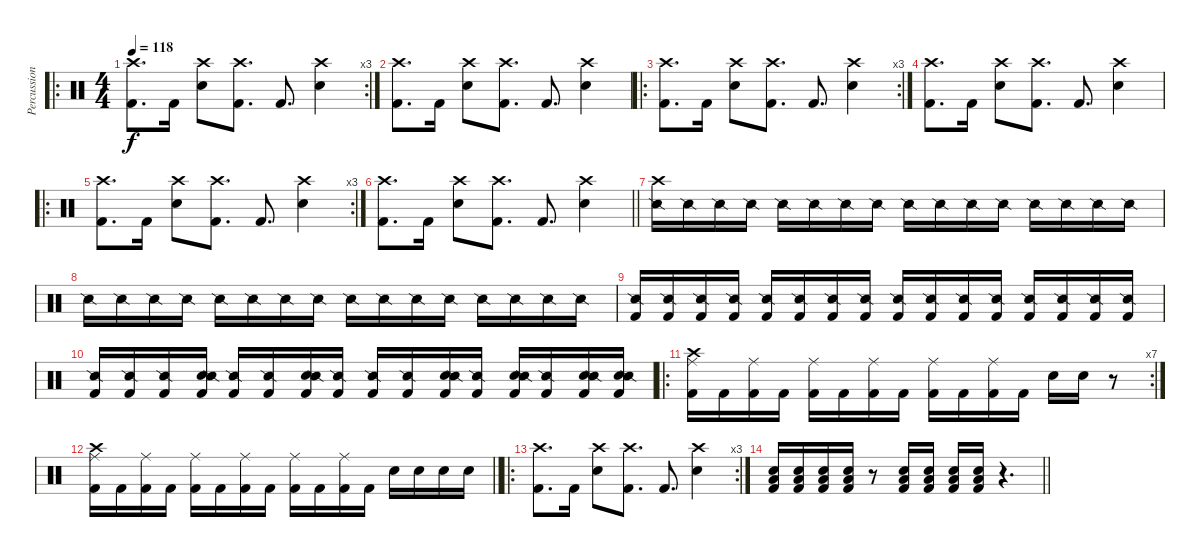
\track ("Percussion" "Percussion") {instrument percussion}
\staff {score}
\articulation defaults
\ro
\rc 3
\ts (4 4)
\tempo 118
\clef neutral
\ks c
("Crash high (hit)" "Kick (hit) 2").8{d dy f} "Kick (hit) 2".16 ("Crash high (hit)" "Snare (hit) 2").8 ("Crash high (hit)" "Kick (hit) 2").8{d} "Kick (hit) 2".8{d} ("Crash high (hit)" "Snare (hit) 2").4 |
("Crash high (hit)" "Kick (hit) 2").8{d} "Kick (hit) 2".16 ("Crash high (hit)" "Snare (hit) 2").8 ("Crash high (hit)" "Kick (hit) 2").8{d} "Kick (hit) 2".8{d} ("Crash high (hit)" "Snare (hit) 2").4 |
\ro
\rc 3
("Crash high (hit)" "Kick (hit) 2").8{d} "Kick (hit) 2".16 ("Crash high (hit)" "Snare (hit) 2").8 ("Crash high (hit)" "Kick (hit) 2").8{d} "Kick (hit) 2".8{d} ("Crash high (hit)" "Snare (hit) 2").4 |
("Crash high (hit)" "Kick (hit) 2").8{d} "Kick (hit) 2".16 ("Crash high (hit)" "Snare (hit) 2").8 ("Crash high (hit)" "Kick (hit) 2").8{d} "Kick (hit) 2".8{d} ("Crash high (hit)" "Snare (hit) 2").4 |
\ro
\rc 3
("Crash high (hit)" "Kick (hit) 2").8{d} "Kick (hit) 2".16 ("Crash high (hit)" "Snare (hit) 2").8 ("Crash high (hit)" "Kick (hit) 2").8{d} "Kick (hit) 2".8{d} ("Crash high (hit)" "Snare (hit) 2").4 |
\barLineRight lightlight
("Crash high (hit)" "Kick (hit) 2").8{d} "Kick (hit) 2".16 ("Crash high (hit)" "Snare (hit) 2").8 ("Crash high (hit)" "Kick (hit) 2").8{d} "Kick (hit) 2".8{d} ("Crash high (hit)" "Snare (hit) 2").4 |
("Crash high (hit)" "Snare (side stick) 2").16 "Snare (side stick) 2".16 "Snare (side stick) 2".16 "Snare (side stick) 2".16 "Snare (side stick) 2".16 "Snare (side stick) 2".16 "Snare (side stick) 2".16 "Snare (side stick) 2".16 "Snare (side stick) 2".16 "Snare (side stick) 2".16 "Snare (side stick) 2".16 "Snare (side stick) 2".16 "Snare (side stick) 2".16 "Snare (side stick) 2".16 "Snare (side stick) 2".16 "Snare (side stick) 2".16 |
"Snare (side stick) 2".16 "Snare (side stick) 2".16 "Snare (side stick) 2".16 "Snare (side stick) 2".16 "Snare (side stick) 2".16 "Snare (side stick) 2".16 "Snare (side stick) 2".16 "Snare (side stick) 2".16 "Snare (side stick) 2".16 "Snare (side stick) 2".16 "Snare (side stick) 2".16 "Snare (side stick) 2".16 "Snare (side stick) 2".16 "Snare (side stick) 2".16 "Snare (side stick) 2".16 "Snare (side stick) 2".16 |
("Kick (hit) 2" "Snare (side stick) 2").16 ("Kick (hit) 2" "Snare (side stick) 2").16 ("Kick (hit) 2" "Snare (side stick) 2").16 ("Kick (hit) 2" "Snare (side stick) 2").16 ("Kick (hit) 2" "Snare (side stick) 2").16 ("Kick (hit) 2" "Snare (side stick) 2").16 ("Kick (hit) 2" "Snare (side stick) 2").16 ("Kick (hit) 2" "Snare (side stick) 2").16 ("Kick (hit) 2" "Snare (side stick) 2").16 ("Kick (hit) 2" "Snare (side stick) 2").16 ("Kick (hit) 2" "Snare (side stick) 2").16 ("Kick (hit) 2" "Snare (side stick) 2").16 ("Kick (hit) 2" "Snare (side stick) 2").16 ("Kick (hit) 2" "Snare (side stick) 2").16 ("Kick (hit) 2" "Snare (side stick) 2").16 ("Kick (hit) 2" "Snare (side stick) 2").16 |
("Kick (hit) 2" "Snare (side stick) 2").16 ("Kick (hit) 2" "Snare (side stick) 2").16 ("Kick (hit) 2" "Snare (side stick) 2").16 ("Snare (hit) 2" "Kick (hit) 2" "Snare (side stick) 2").16 ("Kick (hit) 2" "Snare (side stick) 2").16 ("Kick (hit) 2" "Snare (side stick) 2").16 ("Snare (hit) 2" "Kick (hit) 2" "Snare (side stick) 2").16 ("Kick (hit) 2" "Snare (side stick) 2").16 ("Kick (hit) 2" "Snare (side stick) 2").16 ("Kick (hit) 2" "Snare (side stick) 2").16 ("Snare (hit) 2" "Kick (hit) 2" "Snare (side stick) 2").16 ("Kick (hit) 2" "Snare (side stick) 2").16 ("Snare (hit) 2" "Kick (hit) 2" "Snare (side stick) 2").16 ("Kick (hit) 2" "Snare (side stick) 2").16 ("Snare (hit) 2" "Kick (hit) 2" "Snare (side stick) 2").16 ("Snare (hit) 2" "Kick (hit) 2" "Snare (side stick) 2").16 |
\ro
\rc 7
("Crash high (hit)" "Ride (middle)" "Kick (hit) 2").16 "Kick (hit) 2".16 ("Ride (middle)" "Kick (hit) 2").16 "Kick (hit) 2".16 ("Ride (middle)" "Kick (hit) 2").16 "Kick (hit) 2".16 ("Ride (middle)" "Kick (hit) 2").16 "Kick (hit) 2".16 ("Ride (middle)" "Kick (hit) 2").16 "Kick (hit) 2".16 ("Ride (middle)" "Kick (hit) 2").16 "Kick (hit) 2".16 "Snare (hit) 2".16 "Snare (hit) 2".16 r.8 |
\barLineRight lightlight
("Crash high (hit)" "Ride (middle)" "Kick (hit) 2").16 "Kick (hit) 2".16 ("Ride (middle)" "Kick (hit) 2").16 "Kick (hit) 2".16 ("Ride (middle)" "Kick (hit) 2").16 "Kick (hit) 2".16 ("Ride (middle)" "Kick (hit) 2").16 "Kick (hit) 2".16 ("Ride (middle)" "Kick (hit) 2").16 "Kick (hit) 2".16 ("Ride (middle)" "Kick (hit) 2").16 "Kick (hit) 2".16 "Snare (hit) 2".16 "Snare (hit) 2".16 "Snare (hit) 2".16 "Snare (hit) 2".16 |
\ro
\rc 3
("Crash high (hit)" "Kick (hit) 2").8{d} "Kick (hit) 2".16 ("Crash high (hit)" "Snare (hit) 2").8 ("Crash high (hit)" "Kick (hit) 2").8{d} "Kick (hit) 2".8{d} ("Crash high (hit)" "Snare (hit) 2").4 |
\barLineRight lightlight
("Low Tom (hit)" "Snare (hit) 2" "Kick (hit) 2").16 ("Low Tom (hit)" "Snare (hit) 2" "Kick (hit) 2").16 ("Low Tom (hit)" "Snare (hit) 2" "Kick (hit) 2").16 ("Low Tom (hit)" "Snare (hit) 2" "Kick (hit) 2").16 r.8 ("Low Tom (hit)" "Snare (hit) 2" "Kick (hit) 2").16 ("Low Tom (hit)" "Snare (hit) 2" "Kick (hit) 2").16 ("Low Tom (hit)" "Snare (hit) 2" "Kick (hit) 2").16 ("Low Tom (hit)" "Snare (hit) 2" "Kick (hit) 2").16 r.4{d}
